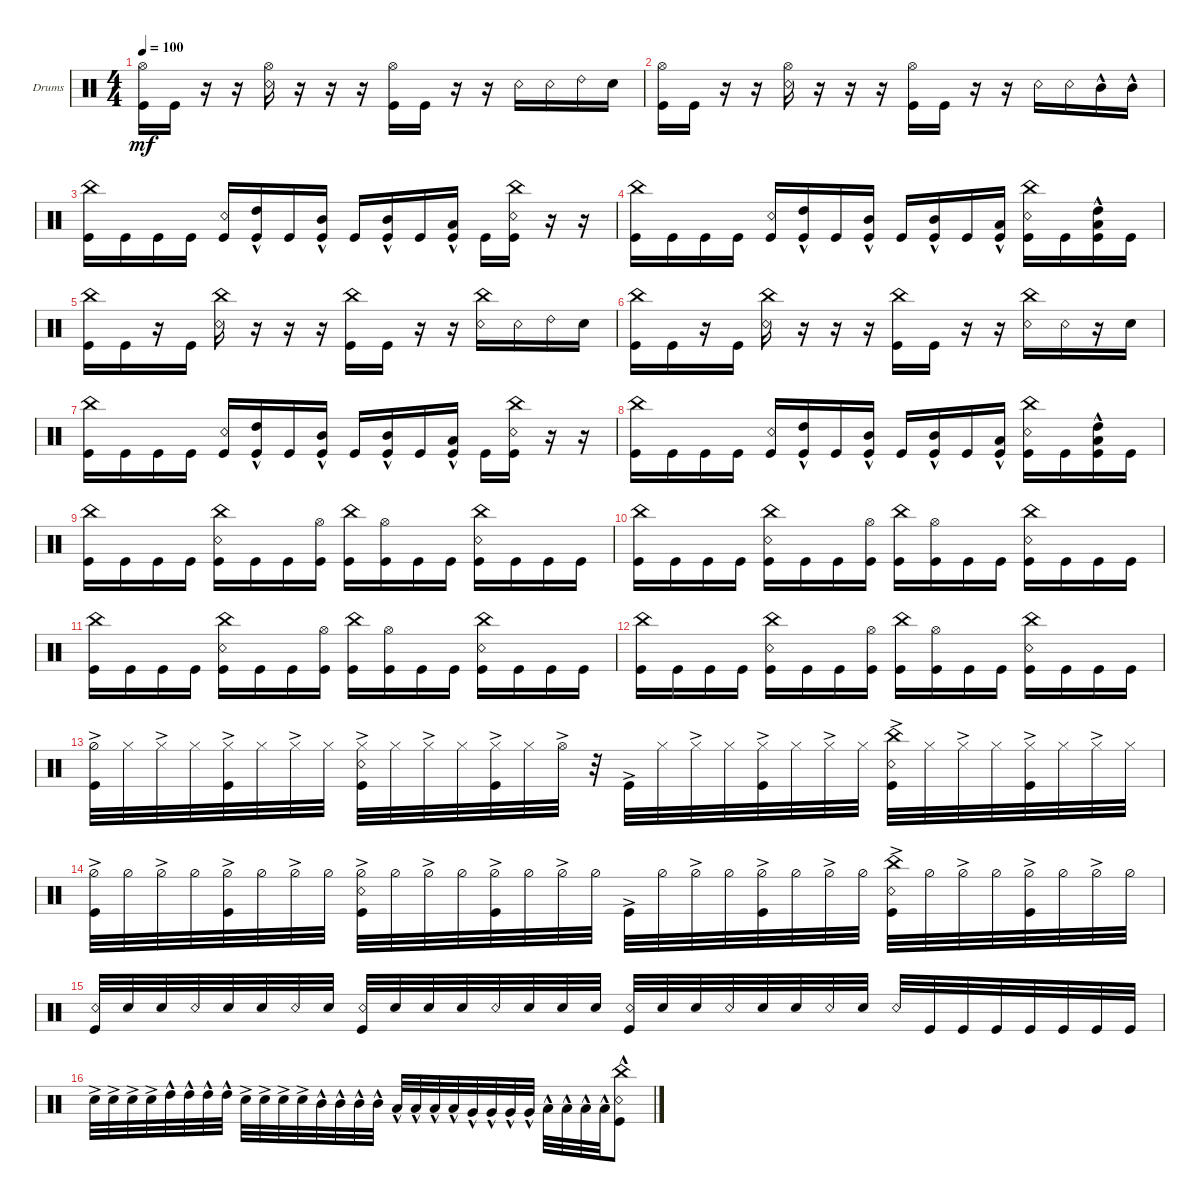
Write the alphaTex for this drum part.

\defaultSystemsLayout 4
\bracketExtendMode groupsimilarinstruments
\firstSystemTrackNameOrientation horizontal
\otherSystemsTrackNameOrientation horizontal
\track ("Drumkit" "Drums") {instrument percussion}
\staff {score}
\articulation defaults
\ts (4 4)
\tempo 100
\clef neutral
\ks c
("Hi-Hat (open)" "Kick (hit)").16{dy mf} "Kick (hit)".16 r.16 r.16 ("Snare (rim shot)" "Hi-Hat (open)").16 r.16 r.16 r.16 ("Kick (hit)" "Hi-Hat (open)").16 "Kick (hit)".16 r.16 r.16 "Snare (rim shot)".16 "Snare (rim shot)".16 "Ride (bell) 2".16 "Snare (hit) 2".16 |
("Hi-Hat (open)" "Kick (hit)").16 "Kick (hit)".16 r.16 r.16 ("Snare (rim shot)" "Hi-Hat (open)").16 r.16 r.16 r.16 ("Kick (hit)" "Hi-Hat (open)").16 "Kick (hit)".16 r.16 r.16 "Snare (rim shot)".16 "Snare (rim shot)".16 "Mid Tom (hit)"{hac}.16 "Mid Tom (hit)"{hac}.16 |
("China (hit)" "Kick (hit)").16 "Kick (hit)".16 "Kick (hit)".16 "Kick (hit)".16 ("Kick (hit)" "Snare (rim shot)").16 ("Kick (hit)" "High Tom (hit)"{hac}).16 "Kick (hit)".16 ("Kick (hit)" "Mid Tom (hit)"{hac}).16 "Kick (hit)".16 ("Kick (hit)" "Mid Tom (hit)"{hac}).16 "Kick (hit)".16 ("Kick (hit)" "Low Tom (hit)"{hac}).16 "Kick (hit)".16 ("Kick (hit)" "Snare (rim shot)" "China (hit)").16 r.16 r.16 |
("China (hit)" "Kick (hit)").16 "Kick (hit)".16 "Kick (hit)".16 "Kick (hit)".16 ("Kick (hit)" "Snare (rim shot)").16 ("Kick (hit)" "High Tom (hit)"{hac}).16 "Kick (hit)".16 ("Kick (hit)" "Mid Tom (hit)"{hac}).16 "Kick (hit)".16 ("Kick (hit)" "Mid Tom (hit)"{hac}).16 "Kick (hit)".16 ("Kick (hit)" "Low Tom (hit)"{hac}).16 ("Kick (hit)" "China (hit)" "Snare (rim shot)").16 "Kick (hit)".16 ("Kick (hit)"{hac} "High Tom (hit)"{hac} "Low Tom (hit)"{hac}).16 "Kick (hit)".16 |
("Kick (hit)" "China (hit)").16 "Kick (hit)".16 r.16 "Kick (hit)".16 ("Snare (rim shot)" "China (hit)").16 r.16 r.16 r.16 ("Kick (hit)" "China (hit)").16 "Kick (hit)".16 r.16 r.16 ("Snare (rim shot)" "China (hit)").16 "Snare (rim shot)".16 "Ride (bell) 2".16 "Snare (hit) 2".16 |
("Kick (hit)" "China (hit)").16 "Kick (hit)".16 r.16 "Kick (hit)".16 ("Snare (rim shot)" "China (hit)").16 r.16 r.16 r.16 ("Kick (hit)" "China (hit)").16 "Kick (hit)".16 r.16 r.16 ("Snare (rim shot)" "China (hit)").16 "Snare (rim shot)".16 r.16 "Snare (hit) 2".16 |
("China (hit)" "Kick (hit)").16 "Kick (hit)".16 "Kick (hit)".16 "Kick (hit)".16 ("Kick (hit)" "Snare (rim shot)").16 ("Kick (hit)" "High Tom (hit)"{hac}).16 "Kick (hit)".16 ("Kick (hit)" "Mid Tom (hit)"{hac}).16 "Kick (hit)".16 ("Kick (hit)" "Mid Tom (hit)"{hac}).16 "Kick (hit)".16 ("Kick (hit)" "Low Tom (hit)"{hac}).16 "Kick (hit)".16 ("Kick (hit)" "Snare (rim shot)" "China (hit)").16 r.16 r.16 |
("China (hit)" "Kick (hit)").16 "Kick (hit)".16 "Kick (hit)".16 "Kick (hit)".16 ("Kick (hit)" "Snare (rim shot)").16 ("Kick (hit)" "High Tom (hit)"{hac}).16 "Kick (hit)".16 ("Kick (hit)" "Mid Tom (hit)"{hac}).16 "Kick (hit)".16 ("Kick (hit)" "Mid Tom (hit)"{hac}).16 "Kick (hit)".16 ("Kick (hit)" "Low Tom (hit)"{hac}).16 ("Kick (hit)" "China (hit)" "Snare (rim shot)").16 "Kick (hit)".16 ("Kick (hit)"{hac} "High Tom (hit)"{hac} "Low Tom (hit)"{hac}).16 "Kick (hit)".16 |
("Kick (hit)" "China (hit)").16 "Kick (hit)".16 "Kick (hit)".16 "Kick (hit)".16 ("Kick (hit)" "Snare (rim shot)" "China (hit)").16 "Kick (hit)".16 "Kick (hit)".16 ("Kick (hit)" "Hi-Hat (open)").16 ("Kick (hit)" "China (hit)").16 ("Kick (hit)" "Hi-Hat (open)").16 "Kick (hit)".16 "Kick (hit)".16 ("Kick (hit)" "China (hit)" "Snare (rim shot)").16 "Kick (hit)".16 "Kick (hit)".16 "Kick (hit)".16 |
("Kick (hit)" "China (hit)").16 "Kick (hit)".16 "Kick (hit)".16 "Kick (hit)".16 ("Kick (hit)" "Snare (rim shot)" "China (hit)").16 "Kick (hit)".16 "Kick (hit)".16 ("Kick (hit)" "Hi-Hat (open)").16 ("Kick (hit)" "China (hit)").16 ("Kick (hit)" "Hi-Hat (open)").16 "Kick (hit)".16 "Kick (hit)".16 ("Kick (hit)" "China (hit)" "Snare (rim shot)").16 "Kick (hit)".16 "Kick (hit)".16 "Kick (hit)".16 |
("Kick (hit)" "China (hit)").16 "Kick (hit)".16 "Kick (hit)".16 "Kick (hit)".16 ("Kick (hit)" "Snare (rim shot)" "China (hit)").16 "Kick (hit)".16 "Kick (hit)".16 ("Kick (hit)" "Hi-Hat (open)").16 ("Kick (hit)" "China (hit)").16 ("Kick (hit)" "Hi-Hat (open)").16 "Kick (hit)".16 "Kick (hit)".16 ("Kick (hit)" "China (hit)" "Snare (rim shot)").16 "Kick (hit)".16 "Kick (hit)".16 "Kick (hit)".16 |
("Kick (hit)" "China (hit)").16 "Kick (hit)".16 "Kick (hit)".16 "Kick (hit)".16 ("Kick (hit)" "Snare (rim shot)" "China (hit)").16 "Kick (hit)".16 "Kick (hit)".16 ("Kick (hit)" "Hi-Hat (open)").16 ("Kick (hit)" "China (hit)").16 ("Kick (hit)" "Hi-Hat (open)").16 "Kick (hit)".16 "Kick (hit)".16 ("Kick (hit)" "China (hit)" "Snare (rim shot)").16 "Kick (hit)".16 "Kick (hit)".16 "Kick (hit)".16 |
("Kick (hit)"{ac} "Hi-Hat (half)").32 "Hi-Hat (closed)".32 "Hi-Hat (closed)"{ac}.32 "Hi-Hat (closed)".32 ("Hi-Hat (closed)"{ac} "Kick (hit)"{ac}).32 "Hi-Hat (closed)".32 "Hi-Hat (closed)"{ac}.32 "Hi-Hat (closed)".32 ("Hi-Hat (closed)"{ac} "Snare (rim shot)" "Kick (hit)"{ac}).32 "Hi-Hat (closed)".32 "Hi-Hat (closed)"{ac}.32 "Hi-Hat (closed)".32 ("Hi-Hat (closed)"{ac} "Kick (hit)"{ac}).32 "Hi-Hat (closed)".32 "Hi-Hat (open)"{ac}.32 r.32 "Kick (hit)"{ac}.32 "Hi-Hat (closed)".32 "Hi-Hat (closed)"{ac}.32 "Hi-Hat (closed)".32 ("Hi-Hat (closed)"{ac} "Kick (hit)"{ac}).32 "Hi-Hat (closed)".32 "Hi-Hat (closed)"{ac}.32 "Hi-Hat (closed)".32 ("Snare (rim shot)" "China (hit)"{ac} "Kick (hit)"{ac}).32 "Hi-Hat (closed)".32 "Hi-Hat (closed)"{ac}.32 "Hi-Hat (closed)".32 ("Hi-Hat (closed)"{ac} "Kick (hit)"{ac}).32 "Hi-Hat (closed)".32 "Hi-Hat (closed)"{ac}.32 "Hi-Hat (closed)".32 |
("Kick (hit)"{ac} "Hi-Hat (half)").32 "Hi-Hat (half)".32 "Hi-Hat (half)"{ac}.32 "Hi-Hat (half)".32 ("Hi-Hat (half)"{ac} "Kick (hit)"{ac}).32 "Hi-Hat (half)".32 "Hi-Hat (half)"{ac}.32 "Hi-Hat (half)".32 ("Hi-Hat (half)"{ac} "Snare (rim shot)" "Kick (hit)"{ac}).32 "Hi-Hat (half)".32 "Hi-Hat (half)"{ac}.32 "Hi-Hat (half)".32 ("Hi-Hat (half)"{ac} "Kick (hit)"{ac}).32 "Hi-Hat (half)".32 "Hi-Hat (half)"{ac}.32 "Hi-Hat (half)".32 "Kick (hit)"{ac}.32 "Hi-Hat (half)".32 "Hi-Hat (half)"{ac}.32 "Hi-Hat (half)".32 ("Hi-Hat (half)"{ac} "Kick (hit)"{ac}).32 "Hi-Hat (half)".32 "Hi-Hat (half)"{ac}.32 "Hi-Hat (half)".32 ("Snare (rim shot)" "China (hit)"{ac} "Kick (hit)"{ac}).32 "Hi-Hat (half)".32 "Hi-Hat (half)"{ac}.32 "Hi-Hat (half)".32 ("Hi-Hat (half)"{ac} "Kick (hit)"{ac}).32 "Hi-Hat (half)".32 "Hi-Hat (half)"{ac}.32 "Hi-Hat (half)".32 |
("Kick (hit)" "Snare (rim shot)").32 "Snare (hit) 2".32 "Snare (hit) 2".32 "Snare (rim shot)".32 "Snare (hit) 2".32 "Snare (hit) 2".32 "Snare (rim shot)".32 "Snare (hit) 2".32 ("Snare (rim shot)" "Kick (hit)").32 "Snare (hit) 2".32 "Snare (hit) 2".32 "Snare (hit) 2".32 "Snare (rim shot)".32 "Snare (hit) 2".32 "Snare (hit) 2".32 "Snare (hit) 2".32 ("Snare (rim shot)" "Kick (hit)").32 "Snare (hit) 2".32 "Snare (hit) 2".32 "Snare (rim shot)".32 "Snare (hit) 2".32 "Snare (hit) 2".32 "Snare (rim shot)".32 "Snare (hit) 2".32 "Snare (rim shot)".32 "Kick (hit)".32 "Kick (hit)".32 "Kick (hit)".32 "Kick (hit)".32 "Kick (hit)".32 "Kick (hit)".32 "Kick (hit)".32 |
"Snare (hit) 2"{ac}.32 "Snare (hit) 2"{ac}.32 "Snare (hit) 2"{ac}.32 "Snare (hit) 2"{ac}.32 "High Tom (hit)"{hac}.32 "High Tom (hit)"{hac}.32 "High Tom (hit)"{hac}.32 "High Tom (hit)"{hac}.32 "Snare (hit) 2"{ac}.32 "Snare (hit) 2"{ac}.32 "Snare (hit) 2"{ac}.32 "Snare (hit) 2"{ac}.32 "Mid Tom (hit)"{hac}.32 "Mid Tom (hit)"{hac}.32 "Mid Tom (hit)"{hac}.32 "Mid Tom (hit)"{hac}.32 "Low Tom (hit)"{hac}.32 "Low Tom (hit)"{hac}.32 "Low Tom (hit)"{hac}.32 "Low Tom (hit)"{hac}.32 "Very Low Tom (hit)"{hac}.32 "Very Low Tom (hit)"{hac}.32 "Very Low Tom (hit)"{hac}.32 "Very Low Tom (hit)"{hac}.32 "Low Tom (hit)"{hac}.32 "Low Tom (hit)"{hac}.32 "Low Tom (hit)"{hac}.32 "Low Tom (hit)"{hac}.32 ("Kick (hit)"{hac} "Snare (rim shot)" "China (hit)").8
